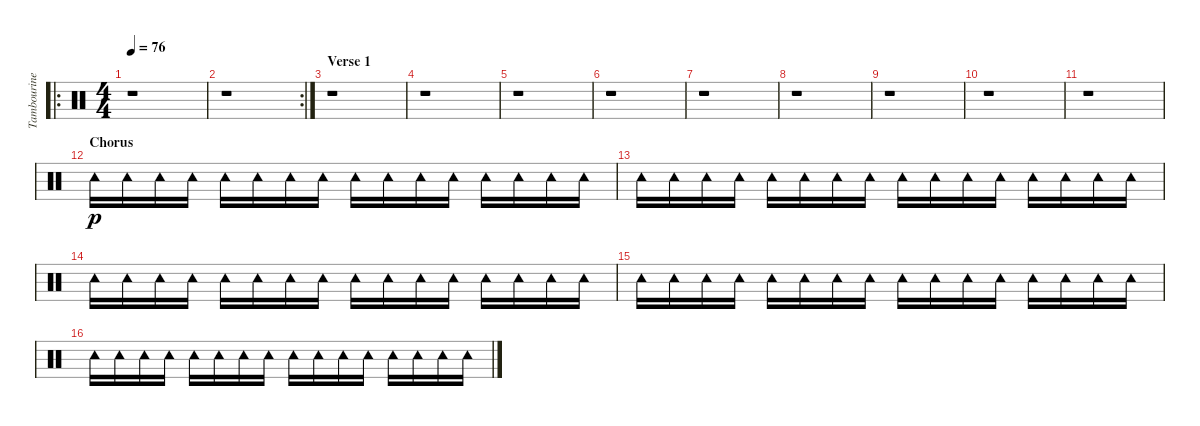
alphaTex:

\track ("Tambourine" "Tambourine") {instrument percussion}
\staff {score}
\articulation defaults
\ro
\ts (4 4)
\tempo 76
\clef neutral
\ks c
r.1{dy p} |
\rc 2
r.1 |
\section ("" "Verse 1")
r.1 |
r.1 |
r.1 |
r.1 |
r.1 |
r.1 |
r.1 |
r.1 |
r.1 |
\section ("" "Chorus")
"Tambourine (hit)".16 "Tambourine (hit)".16 "Tambourine (hit)".16 "Tambourine (hit)".16 "Tambourine (hit)".16 "Tambourine (hit)".16 "Tambourine (hit)".16 "Tambourine (hit)".16 "Tambourine (hit)".16 "Tambourine (hit)".16 "Tambourine (hit)".16 "Tambourine (hit)".16 "Tambourine (hit)".16 "Tambourine (hit)".16 "Tambourine (hit)".16 "Tambourine (hit)".16 |
"Tambourine (hit)".16 "Tambourine (hit)".16 "Tambourine (hit)".16 "Tambourine (hit)".16 "Tambourine (hit)".16 "Tambourine (hit)".16 "Tambourine (hit)".16 "Tambourine (hit)".16 "Tambourine (hit)".16 "Tambourine (hit)".16 "Tambourine (hit)".16 "Tambourine (hit)".16 "Tambourine (hit)".16 "Tambourine (hit)".16 "Tambourine (hit)".16 "Tambourine (hit)".16 |
"Tambourine (hit)".16 "Tambourine (hit)".16 "Tambourine (hit)".16 "Tambourine (hit)".16 "Tambourine (hit)".16 "Tambourine (hit)".16 "Tambourine (hit)".16 "Tambourine (hit)".16 "Tambourine (hit)".16 "Tambourine (hit)".16 "Tambourine (hit)".16 "Tambourine (hit)".16 "Tambourine (hit)".16 "Tambourine (hit)".16 "Tambourine (hit)".16 "Tambourine (hit)".16 |
"Tambourine (hit)".16 "Tambourine (hit)".16 "Tambourine (hit)".16 "Tambourine (hit)".16 "Tambourine (hit)".16 "Tambourine (hit)".16 "Tambourine (hit)".16 "Tambourine (hit)".16 "Tambourine (hit)".16 "Tambourine (hit)".16 "Tambourine (hit)".16 "Tambourine (hit)".16 "Tambourine (hit)".16 "Tambourine (hit)".16 "Tambourine (hit)".16 "Tambourine (hit)".16 |
"Tambourine (hit)".16 "Tambourine (hit)".16 "Tambourine (hit)".16 "Tambourine (hit)".16 "Tambourine (hit)".16 "Tambourine (hit)".16 "Tambourine (hit)".16 "Tambourine (hit)".16 "Tambourine (hit)".16 "Tambourine (hit)".16 "Tambourine (hit)".16 "Tambourine (hit)".16 "Tambourine (hit)".16 "Tambourine (hit)".16 "Tambourine (hit)".16 "Tambourine (hit)".16
